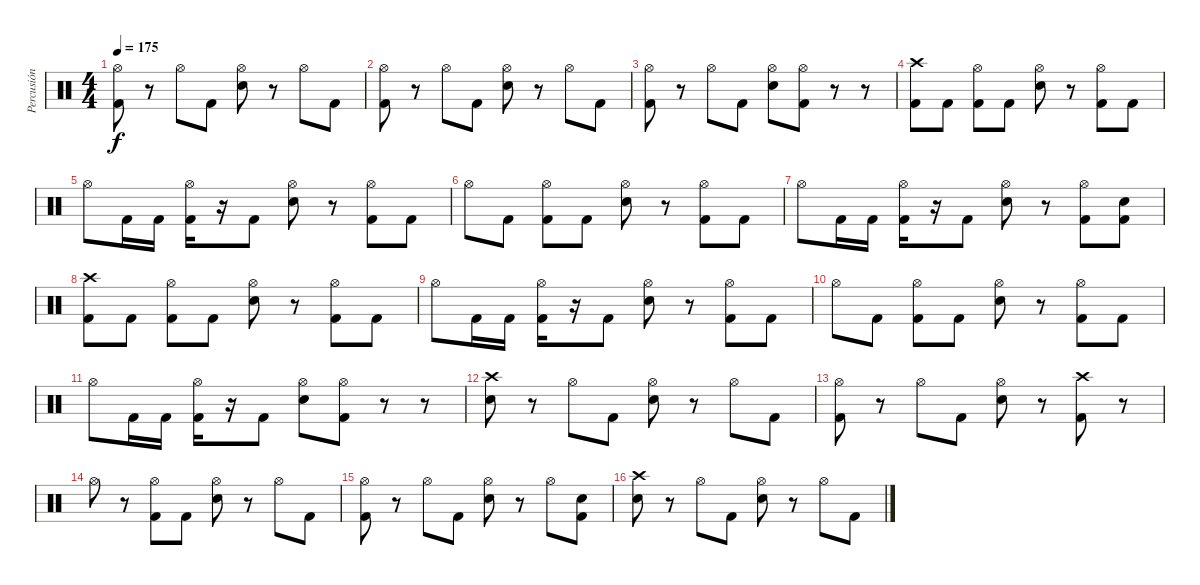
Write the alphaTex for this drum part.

\track ("Percusión" "Percusión") {instrument percussion}
\staff {score}
\articulation defaults
\ts (4 4)
\tempo 175
\clef neutral
\ks c
("Hi-Hat (open)" "Kick (hit) 2").8{dy f} r.8 "Hi-Hat (open)".8 "Kick (hit) 2".8 ("Hi-Hat (open)" "Electric Snare (hit)").8 r.8 "Hi-Hat (open)".8 "Kick (hit) 2".8 |
("Hi-Hat (open)" "Kick (hit) 2").8 r.8 "Hi-Hat (open)".8 "Kick (hit) 2".8 ("Hi-Hat (open)" "Electric Snare (hit)").8 r.8 "Hi-Hat (open)".8 "Kick (hit) 2".8 |
("Hi-Hat (open)" "Kick (hit) 2").8 r.8 "Hi-Hat (open)".8 "Kick (hit) 2".8 ("Hi-Hat (open)" "Electric Snare (hit)").8 ("Hi-Hat (open)" "Kick (hit) 2").8 r.8 r.8 |
("Crash high (hit)" "Kick (hit) 2").8 "Kick (hit) 2".8 ("Hi-Hat (open)" "Kick (hit) 2").8 "Kick (hit) 2".8 ("Hi-Hat (open)" "Electric Snare (hit)").8 r.8 ("Hi-Hat (open)" "Kick (hit) 2").8 "Kick (hit) 2".8 |
"Hi-Hat (open)".8 "Kick (hit) 2".16 "Kick (hit) 2".16 ("Hi-Hat (open)" "Kick (hit) 2").16 r.16 "Kick (hit) 2".8 ("Hi-Hat (open)" "Electric Snare (hit)").8 r.8 ("Hi-Hat (open)" "Kick (hit) 2").8 "Kick (hit) 2".8 |
"Hi-Hat (open)".8 "Kick (hit) 2".8 ("Hi-Hat (open)" "Kick (hit) 2").8 "Kick (hit) 2".8 ("Hi-Hat (open)" "Electric Snare (hit)").8 r.8 ("Hi-Hat (open)" "Kick (hit) 2").8 "Kick (hit) 2".8 |
"Hi-Hat (open)".8 "Kick (hit) 2".16 "Kick (hit) 2".16 ("Hi-Hat (open)" "Kick (hit) 2").16 r.16 "Kick (hit) 2".8 ("Hi-Hat (open)" "Electric Snare (hit)").8 r.8 ("Hi-Hat (open)" "Kick (hit) 2").8 ("Electric Snare (hit)" "Kick (hit) 2").8 |
("Crash high (hit)" "Kick (hit) 2").8 "Kick (hit) 2".8 ("Hi-Hat (open)" "Kick (hit) 2").8 "Kick (hit) 2".8 ("Hi-Hat (open)" "Electric Snare (hit)").8 r.8 ("Hi-Hat (open)" "Kick (hit) 2").8 "Kick (hit) 2".8 |
"Hi-Hat (open)".8 "Kick (hit) 2".16 "Kick (hit) 2".16 ("Hi-Hat (open)" "Kick (hit) 2").16 r.16 "Kick (hit) 2".8 ("Hi-Hat (open)" "Electric Snare (hit)").8 r.8 ("Hi-Hat (open)" "Kick (hit) 2").8 "Kick (hit) 2".8 |
"Hi-Hat (open)".8 "Kick (hit) 2".8 ("Hi-Hat (open)" "Kick (hit) 2").8 "Kick (hit) 2".8 ("Hi-Hat (open)" "Electric Snare (hit)").8 r.8 ("Hi-Hat (open)" "Kick (hit) 2").8 "Kick (hit) 2".8 |
"Hi-Hat (open)".8 "Kick (hit) 2".16 "Kick (hit) 2".16 ("Hi-Hat (open)" "Kick (hit) 2").16 r.16 "Kick (hit) 2".8 ("Hi-Hat (open)" "Electric Snare (hit)").8 ("Hi-Hat (open)" "Kick (hit) 2").8 r.8 r.8 |
("Crash high (hit)" "Electric Snare (hit)").8 r.8 "Hi-Hat (open)".8 "Kick (hit) 2".8 ("Hi-Hat (open)" "Electric Snare (hit)").8 r.8 "Hi-Hat (open)".8 "Kick (hit) 2".8 |
("Hi-Hat (open)" "Kick (hit) 2").8 r.8 "Hi-Hat (open)".8 "Kick (hit) 2".8 ("Hi-Hat (open)" "Electric Snare (hit)").8 r.8 ("Crash high (hit)" "Kick (hit) 2").8 r.8 |
"Hi-Hat (open)".8 r.8 ("Hi-Hat (open)" "Kick (hit) 2").8 "Kick (hit) 2".8 ("Hi-Hat (open)" "Electric Snare (hit)").8 r.8 "Hi-Hat (open)".8 "Kick (hit) 2".8 |
("Hi-Hat (open)" "Kick (hit) 2").8 r.8 "Hi-Hat (open)".8 "Kick (hit) 2".8 ("Electric Snare (hit)" "Hi-Hat (open)").8 r.8 "Hi-Hat (open)".8 ("Electric Snare (hit)" "Kick (hit) 2").8 |
("Crash high (hit)" "Electric Snare (hit)").8 r.8 "Hi-Hat (open)".8 "Kick (hit) 2".8 ("Hi-Hat (open)" "Electric Snare (hit)").8 r.8 "Hi-Hat (open)".8 "Kick (hit) 2".8
